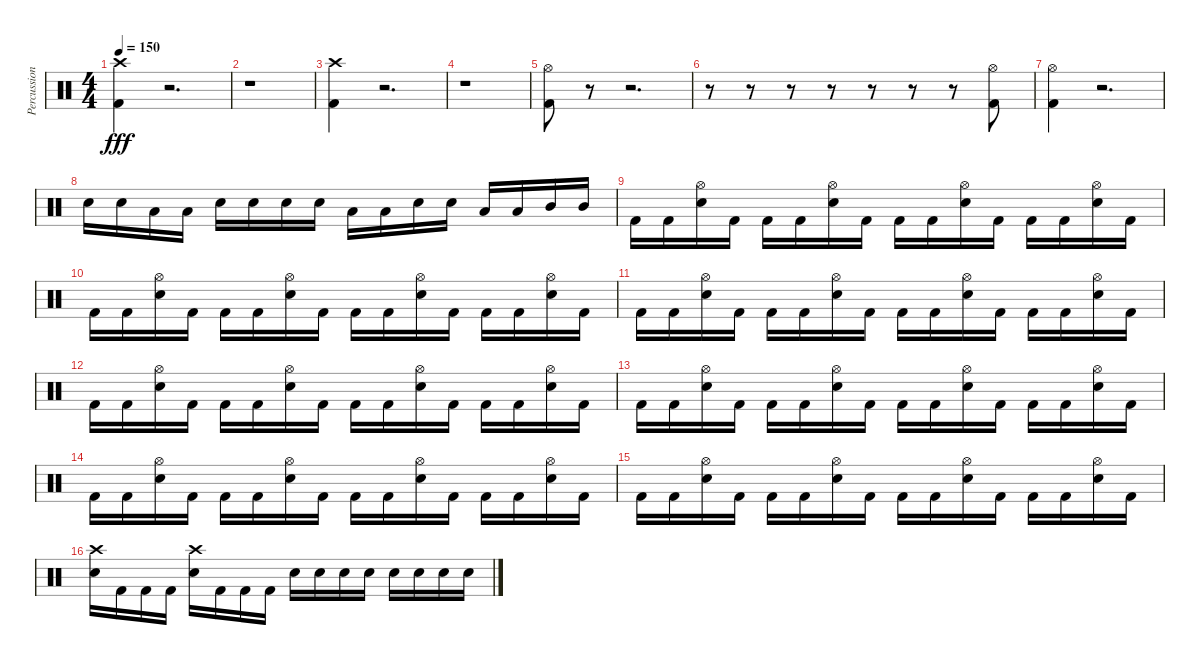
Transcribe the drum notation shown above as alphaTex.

\track ("Percussion" "Percussion") {instrument percussion}
\staff {score}
\articulation defaults
\ts (4 4)
\tempo 150
\clef neutral
\ks c
("Kick (hit) 2" "Crash high (hit)").4{dy fff} r.2{d} |
r.1 |
("Kick (hit) 2" "Crash high (hit)").4 r.2{d} |
r.1 |
("Kick (hit) 2" "Hi-Hat (open)").8 r.8 r.2{d} |
r.8 r.8 r.8 r.8 r.8 r.8 r.8 ("Kick (hit) 2" "Hi-Hat (open)").8 |
("Kick (hit) 2" "Hi-Hat (open)").4 r.2{d} |
"Snare (hit) 2".16 "Snare (hit) 2".16 "Low Tom (hit)".16 "Low Tom (hit)".16 "Snare (hit) 2".16 "Snare (hit) 2".16 "Snare (hit) 2".16 "Snare (hit) 2".16 "Low Tom (hit)".16 "Low Tom (hit)".16 "Snare (hit) 2".16 "Snare (hit) 2".16 "Low Tom (hit)".16 "Low Tom (hit)".16 "Mid Tom (hit)".16 "Mid Tom (hit)".16 |
"Kick (hit) 2".16 "Kick (hit) 2".16 ("Snare (hit) 2" "Hi-Hat (open)").16 "Kick (hit) 2".16 "Kick (hit) 2".16 "Kick (hit) 2".16 ("Snare (hit) 2" "Hi-Hat (open)").16 "Kick (hit) 2".16 "Kick (hit) 2".16 "Kick (hit) 2".16 ("Snare (hit) 2" "Hi-Hat (open)").16 "Kick (hit) 2".16 "Kick (hit) 2".16 "Kick (hit) 2".16 ("Snare (hit) 2" "Hi-Hat (open)").16 "Kick (hit) 2".16 |
"Kick (hit) 2".16 "Kick (hit) 2".16 ("Snare (hit) 2" "Hi-Hat (open)").16 "Kick (hit) 2".16 "Kick (hit) 2".16 "Kick (hit) 2".16 ("Snare (hit) 2" "Hi-Hat (open)").16 "Kick (hit) 2".16 "Kick (hit) 2".16 "Kick (hit) 2".16 ("Snare (hit) 2" "Hi-Hat (open)").16 "Kick (hit) 2".16 "Kick (hit) 2".16 "Kick (hit) 2".16 ("Snare (hit) 2" "Hi-Hat (open)").16 "Kick (hit) 2".16 |
"Kick (hit) 2".16 "Kick (hit) 2".16 ("Snare (hit) 2" "Hi-Hat (open)").16 "Kick (hit) 2".16 "Kick (hit) 2".16 "Kick (hit) 2".16 ("Snare (hit) 2" "Hi-Hat (open)").16 "Kick (hit) 2".16 "Kick (hit) 2".16 "Kick (hit) 2".16 ("Snare (hit) 2" "Hi-Hat (open)").16 "Kick (hit) 2".16 "Kick (hit) 2".16 "Kick (hit) 2".16 ("Snare (hit) 2" "Hi-Hat (open)").16 "Kick (hit) 2".16 |
"Kick (hit) 2".16 "Kick (hit) 2".16 ("Snare (hit) 2" "Hi-Hat (open)").16 "Kick (hit) 2".16 "Kick (hit) 2".16 "Kick (hit) 2".16 ("Snare (hit) 2" "Hi-Hat (open)").16 "Kick (hit) 2".16 "Kick (hit) 2".16 "Kick (hit) 2".16 ("Snare (hit) 2" "Hi-Hat (open)").16 "Kick (hit) 2".16 "Kick (hit) 2".16 "Kick (hit) 2".16 ("Snare (hit) 2" "Hi-Hat (open)").16 "Kick (hit) 2".16 |
"Kick (hit) 2".16 "Kick (hit) 2".16 ("Snare (hit) 2" "Hi-Hat (open)").16 "Kick (hit) 2".16 "Kick (hit) 2".16 "Kick (hit) 2".16 ("Snare (hit) 2" "Hi-Hat (open)").16 "Kick (hit) 2".16 "Kick (hit) 2".16 "Kick (hit) 2".16 ("Snare (hit) 2" "Hi-Hat (open)").16 "Kick (hit) 2".16 "Kick (hit) 2".16 "Kick (hit) 2".16 ("Snare (hit) 2" "Hi-Hat (open)").16 "Kick (hit) 2".16 |
"Kick (hit) 2".16 "Kick (hit) 2".16 ("Snare (hit) 2" "Hi-Hat (open)").16 "Kick (hit) 2".16 "Kick (hit) 2".16 "Kick (hit) 2".16 ("Snare (hit) 2" "Hi-Hat (open)").16 "Kick (hit) 2".16 "Kick (hit) 2".16 "Kick (hit) 2".16 ("Snare (hit) 2" "Hi-Hat (open)").16 "Kick (hit) 2".16 "Kick (hit) 2".16 "Kick (hit) 2".16 ("Snare (hit) 2" "Hi-Hat (open)").16 "Kick (hit) 2".16 |
"Kick (hit) 2".16 "Kick (hit) 2".16 ("Snare (hit) 2" "Hi-Hat (open)").16 "Kick (hit) 2".16 "Kick (hit) 2".16 "Kick (hit) 2".16 ("Snare (hit) 2" "Hi-Hat (open)").16 "Kick (hit) 2".16 "Kick (hit) 2".16 "Kick (hit) 2".16 ("Snare (hit) 2" "Hi-Hat (open)").16 "Kick (hit) 2".16 "Kick (hit) 2".16 "Kick (hit) 2".16 ("Snare (hit) 2" "Hi-Hat (open)").16 "Kick (hit) 2".16 |
("Snare (hit) 2" "Crash high (hit)").16 "Kick (hit) 2".16 "Kick (hit) 2".16 "Kick (hit) 2".16 ("Snare (hit) 2" "Crash high (hit)").16 "Kick (hit) 2".16 "Kick (hit) 2".16 "Kick (hit) 2".16 "Snare (hit) 2".16 "Snare (hit) 2".16 "Snare (hit) 2".16 "Snare (hit) 2".16 "Snare (hit) 2".16 "Snare (hit) 2".16 "Snare (hit) 2".16 "Snare (hit) 2".16
